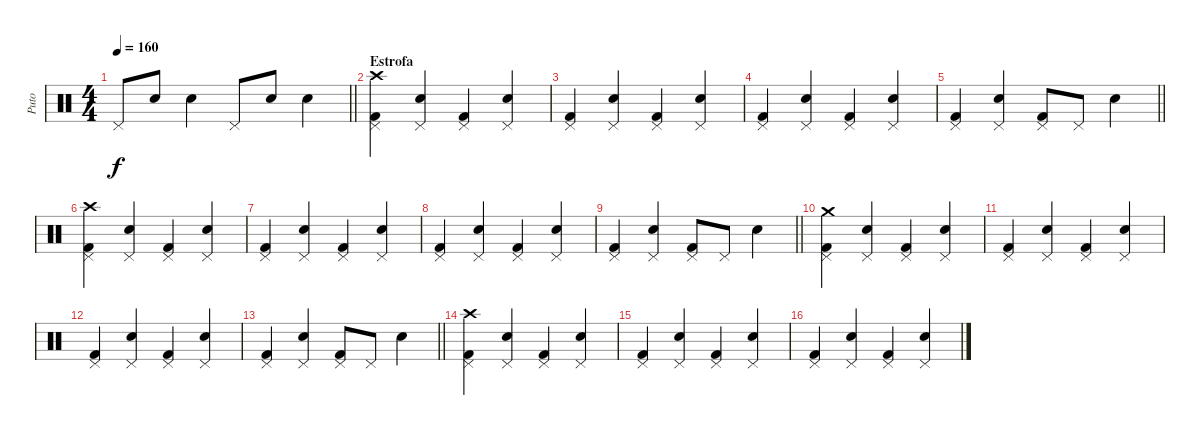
\track ("Puto" "Puto") {instrument percussion}
\staff {score}
\articulation defaults
\ts (4 4)
\tempo 160
\clef neutral
\barLineRight lightlight
\ks c "Pedal Hi-Hat (hit)".8{dy f} "Snare (hit) 2".8 "Snare (hit) 2".4 "Pedal Hi-Hat (hit)".8 "Snare (hit) 2".8 "Snare (hit) 2".4
|
\section ("" "Estrofa")
("Kick (hit) 2" "Crash high (hit)" "Pedal Hi-Hat (hit)").4 ("Snare (hit) 2" "Pedal Hi-Hat (hit)").4 ("Kick (hit) 2" "Pedal Hi-Hat (hit)").4 ("Snare (hit) 2" "Pedal Hi-Hat (hit)").4 |
("Kick (hit) 2" "Pedal Hi-Hat (hit)").4 ("Snare (hit) 2" "Pedal Hi-Hat (hit)").4 ("Kick (hit) 2" "Pedal Hi-Hat (hit)").4 ("Snare (hit) 2" "Pedal Hi-Hat (hit)").4 |
("Kick (hit) 2" "Pedal Hi-Hat (hit)").4 ("Snare (hit) 2" "Pedal Hi-Hat (hit)").4 ("Kick (hit) 2" "Pedal Hi-Hat (hit)").4 ("Snare (hit) 2" "Pedal Hi-Hat (hit)").4 |
\barLineRight lightlight
("Kick (hit) 2" "Pedal Hi-Hat (hit)").4 ("Snare (hit) 2" "Pedal Hi-Hat (hit)").4 ("Kick (hit) 2" "Pedal Hi-Hat (hit)").8 "Pedal Hi-Hat (hit)".8 "Snare (hit) 2".4 |
("Kick (hit) 2" "Crash high (hit)" "Pedal Hi-Hat (hit)").4 ("Snare (hit) 2" "Pedal Hi-Hat (hit)").4 ("Kick (hit) 2" "Pedal Hi-Hat (hit)").4 ("Snare (hit) 2" "Pedal Hi-Hat (hit)").4 |
("Kick (hit) 2" "Pedal Hi-Hat (hit)").4 ("Snare (hit) 2" "Pedal Hi-Hat (hit)").4 ("Kick (hit) 2" "Pedal Hi-Hat (hit)").4 ("Snare (hit) 2" "Pedal Hi-Hat (hit)").4 |
("Kick (hit) 2" "Pedal Hi-Hat (hit)").4 ("Snare (hit) 2" "Pedal Hi-Hat (hit)").4 ("Kick (hit) 2" "Pedal Hi-Hat (hit)").4 ("Snare (hit) 2" "Pedal Hi-Hat (hit)").4 |
\barLineRight lightlight
("Kick (hit) 2" "Pedal Hi-Hat (hit)").4 ("Snare (hit) 2" "Pedal Hi-Hat (hit)").4 ("Kick (hit) 2" "Pedal Hi-Hat (hit)").8 "Pedal Hi-Hat (hit)".8 "Snare (hit) 2".4 |
("Kick (hit) 2" "Crash medium (hit)" "Pedal Hi-Hat (hit)").4 ("Snare (hit) 2" "Pedal Hi-Hat (hit)").4 ("Kick (hit) 2" "Pedal Hi-Hat (hit)").4 ("Snare (hit) 2" "Pedal Hi-Hat (hit)").4 |
("Kick (hit) 2" "Pedal Hi-Hat (hit)").4 ("Snare (hit) 2" "Pedal Hi-Hat (hit)").4 ("Kick (hit) 2" "Pedal Hi-Hat (hit)").4 ("Snare (hit) 2" "Pedal Hi-Hat (hit)").4 |
("Kick (hit) 2" "Pedal Hi-Hat (hit)").4 ("Snare (hit) 2" "Pedal Hi-Hat (hit)").4 ("Kick (hit) 2" "Pedal Hi-Hat (hit)").4 ("Snare (hit) 2" "Pedal Hi-Hat (hit)").4 |
\barLineRight lightlight
("Kick (hit) 2" "Pedal Hi-Hat (hit)").4 ("Snare (hit) 2" "Pedal Hi-Hat (hit)").4 ("Kick (hit) 2" "Pedal Hi-Hat (hit)").8 "Pedal Hi-Hat (hit)".8 "Snare (hit) 2".4 |
("Kick (hit) 2" "Crash high (hit)" "Pedal Hi-Hat (hit)").4 ("Snare (hit) 2" "Pedal Hi-Hat (hit)").4 ("Kick (hit) 2" "Pedal Hi-Hat (hit)").4 ("Snare (hit) 2" "Pedal Hi-Hat (hit)").4 |
("Kick (hit) 2" "Pedal Hi-Hat (hit)").4 ("Snare (hit) 2" "Pedal Hi-Hat (hit)").4 ("Kick (hit) 2" "Pedal Hi-Hat (hit)").4 ("Snare (hit) 2" "Pedal Hi-Hat (hit)").4 |
("Kick (hit) 2" "Pedal Hi-Hat (hit)").4 ("Snare (hit) 2" "Pedal Hi-Hat (hit)").4 ("Kick (hit) 2" "Pedal Hi-Hat (hit)").4 ("Snare (hit) 2" "Pedal Hi-Hat (hit)").4
